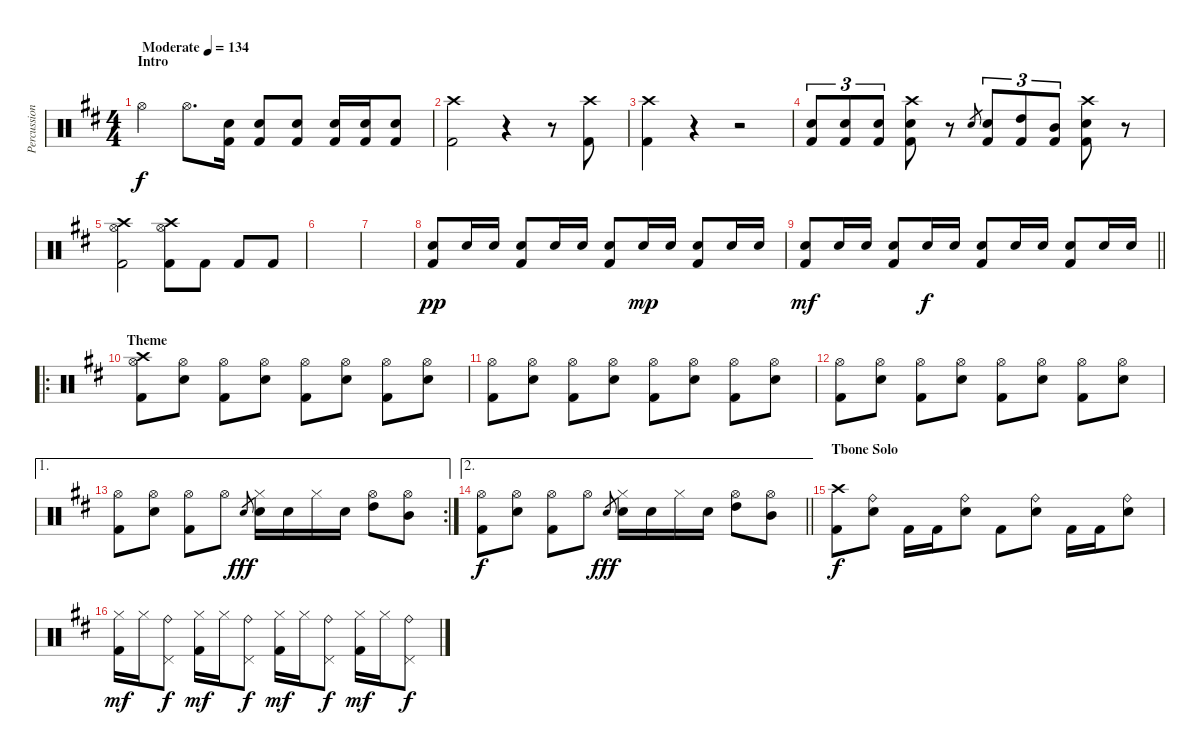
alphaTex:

\track ("Percussion" "Percussion") {instrument percussion}
\staff {score}
\articulation defaults
\ts (4 4)
\section ("" "Intro")
\tempo (134 "Moderate")
\clef neutral
\ks bminor "Hi-Hat (open)".4{dy f} "Hi-Hat (open)".8{d}
("Snare (hit) 2" "Kick (hit) 2").16 ("Snare (hit) 2" "Kick (hit) 2").8 ("Snare (hit) 2" "Kick (hit) 2").8 ("Snare (hit) 2" "Kick (hit) 2").16 ("Snare (hit) 2" "Kick (hit) 2").16 ("Snare (hit) 2" "Kick (hit) 2").8 |
("Crash high (hit)" "Kick (hit) 2").2 r.4 r.8 ("Crash high (hit)" "Kick (hit) 2").8 |
("Crash high (hit)" "Kick (hit) 2").4 r.4 r.2 |
("Snare (hit) 2" "Kick (hit) 2").8{tu (3 2)} ("Snare (hit) 2" "Kick (hit) 2").8{tu (3 2)} ("Snare (hit) 2" "Kick (hit) 2").8{tu (3 2)} ("Crash high (hit)" "Snare (hit) 2" "Kick (hit) 2").8 r.8 "Snare (hit) 2".8{gr} ("Snare (hit) 2" "Kick (hit) 2").8{tu (3 2)} ("High Tom (hit)" "Kick (hit) 2").8{tu (3 2)} ("Mid Tom (hit)" "Kick (hit) 2").8{tu (3 2)} ("Crash high (hit)" "Snare (hit) 2" "Kick (hit) 2").8 r.8 |
("Crash high (hit)" "Hi-Hat (open)" "Kick (hit) 2").2 ("Crash high (hit)" "Hi-Hat (open)" "Kick (hit) 2").8 "Kick (hit) 2".8 "Kick (hit) 2".8 "Kick (hit) 2".8 |
|
|
("Snare (hit) 2" "Kick (hit) 2").8{dy pp} "Snare (hit) 2".16 "Snare (hit) 2".16 ("Snare (hit) 2" "Kick (hit) 2").8 "Snare (hit) 2".16 "Snare (hit) 2".16 ("Snare (hit) 2" "Kick (hit) 2").8 "Snare (hit) 2".16{dy mp} "Snare (hit) 2".16 ("Snare (hit) 2" "Kick (hit) 2").8 "Snare (hit) 2".16 "Snare (hit) 2".16 |
\barLineRight lightlight
("Snare (hit) 2" "Kick (hit) 2").8{dy mf} "Snare (hit) 2".16 "Snare (hit) 2".16 ("Snare (hit) 2" "Kick (hit) 2").8 "Snare (hit) 2".16{dy f} "Snare (hit) 2".16 ("Snare (hit) 2" "Kick (hit) 2").8 "Snare (hit) 2".16 "Snare (hit) 2".16 ("Snare (hit) 2" "Kick (hit) 2").8 "Snare (hit) 2".16 "Snare (hit) 2".16 |
\ro
\section ("" "Theme")
("Crash high (hit)" "Hi-Hat (open)" "Kick (hit) 2").8 ("Hi-Hat (open)" "Snare (hit) 2").8 ("Hi-Hat (open)" "Kick (hit) 2").8 ("Hi-Hat (open)" "Snare (hit) 2").8 ("Hi-Hat (open)" "Kick (hit) 2").8 ("Hi-Hat (open)" "Snare (hit) 2").8 ("Hi-Hat (open)" "Kick (hit) 2").8 ("Hi-Hat (open)" "Snare (hit) 2").8 |
("Hi-Hat (open)" "Kick (hit) 2").8 ("Hi-Hat (open)" "Snare (hit) 2").8 ("Hi-Hat (open)" "Kick (hit) 2").8 ("Hi-Hat (open)" "Snare (hit) 2").8 ("Hi-Hat (open)" "Kick (hit) 2").8 ("Hi-Hat (open)" "Snare (hit) 2").8 ("Hi-Hat (open)" "Kick (hit) 2").8 ("Hi-Hat (open)" "Snare (hit) 2").8 |
("Hi-Hat (open)" "Kick (hit) 2").8 ("Hi-Hat (open)" "Snare (hit) 2").8 ("Hi-Hat (open)" "Kick (hit) 2").8 ("Hi-Hat (open)" "Snare (hit) 2").8 ("Hi-Hat (open)" "Kick (hit) 2").8 ("Hi-Hat (open)" "Snare (hit) 2").8 ("Hi-Hat (open)" "Kick (hit) 2").8 ("Hi-Hat (open)" "Snare (hit) 2").8 |
\ae 1
\rc 2
("Hi-Hat (open)" "Kick (hit) 2").8 ("Hi-Hat (open)" "Snare (hit) 2").8 ("Hi-Hat (open)" "Kick (hit) 2").8 "Hi-Hat (open)".8 "Snare (hit) 2".8{gr dy fff} ("Hi-Hat (closed)" "Snare (hit) 2").16 "Snare (hit) 2".16 "Hi-Hat (closed)".16 "Snare (hit) 2".16 ("Hi-Hat (open)" "High Tom (hit)").8 ("Hi-Hat (open)" "Mid Tom (hit)").8 |
\ae 2
\barLineRight lightlight
("Hi-Hat (open)" "Kick (hit) 2").8{dy f} ("Hi-Hat (open)" "Snare (hit) 2").8 ("Hi-Hat (open)" "Kick (hit) 2").8 "Hi-Hat (open)".8 "Snare (hit) 2".8{gr dy fff} ("Hi-Hat (closed)" "Snare (hit) 2").16 "Snare (hit) 2".16 "Hi-Hat (closed)".16 "Snare (hit) 2".16 ("Hi-Hat (open)" "High Tom (hit)").8 ("Hi-Hat (open)" "Mid Tom (hit)").8 |
\section ("" "Tbone Solo")
("Crash high (hit)" "Kick (hit) 2").8{dy f} ("Ride (bell)" "Snare (hit) 2").8 "Kick (hit) 2".16 "Kick (hit) 2".16 ("Ride (bell)" "Snare (hit) 2").8 "Kick (hit) 2".8 ("Ride (bell)" "Snare (hit) 2").8 "Kick (hit) 2".16 "Kick (hit) 2".16 ("Ride (bell)" "Snare (hit) 2").8 |
("Hi-Hat (closed)" "Kick (hit) 2").16{dy mf} "Hi-Hat (closed)".16 ("Ride (bell)" "Pedal Hi-Hat (hit)").8{dy f} ("Hi-Hat (closed)" "Kick (hit) 2").16{dy mf} "Hi-Hat (closed)".16 ("Ride (bell)" "Pedal Hi-Hat (hit)").8{dy f} ("Hi-Hat (closed)" "Kick (hit) 2").16{dy mf} "Hi-Hat (closed)".16 ("Ride (bell)" "Pedal Hi-Hat (hit)").8{dy f} ("Hi-Hat (closed)" "Kick (hit) 2").16{dy mf} "Hi-Hat (closed)".16 ("Ride (bell)" "Pedal Hi-Hat (hit)").8{dy f}
